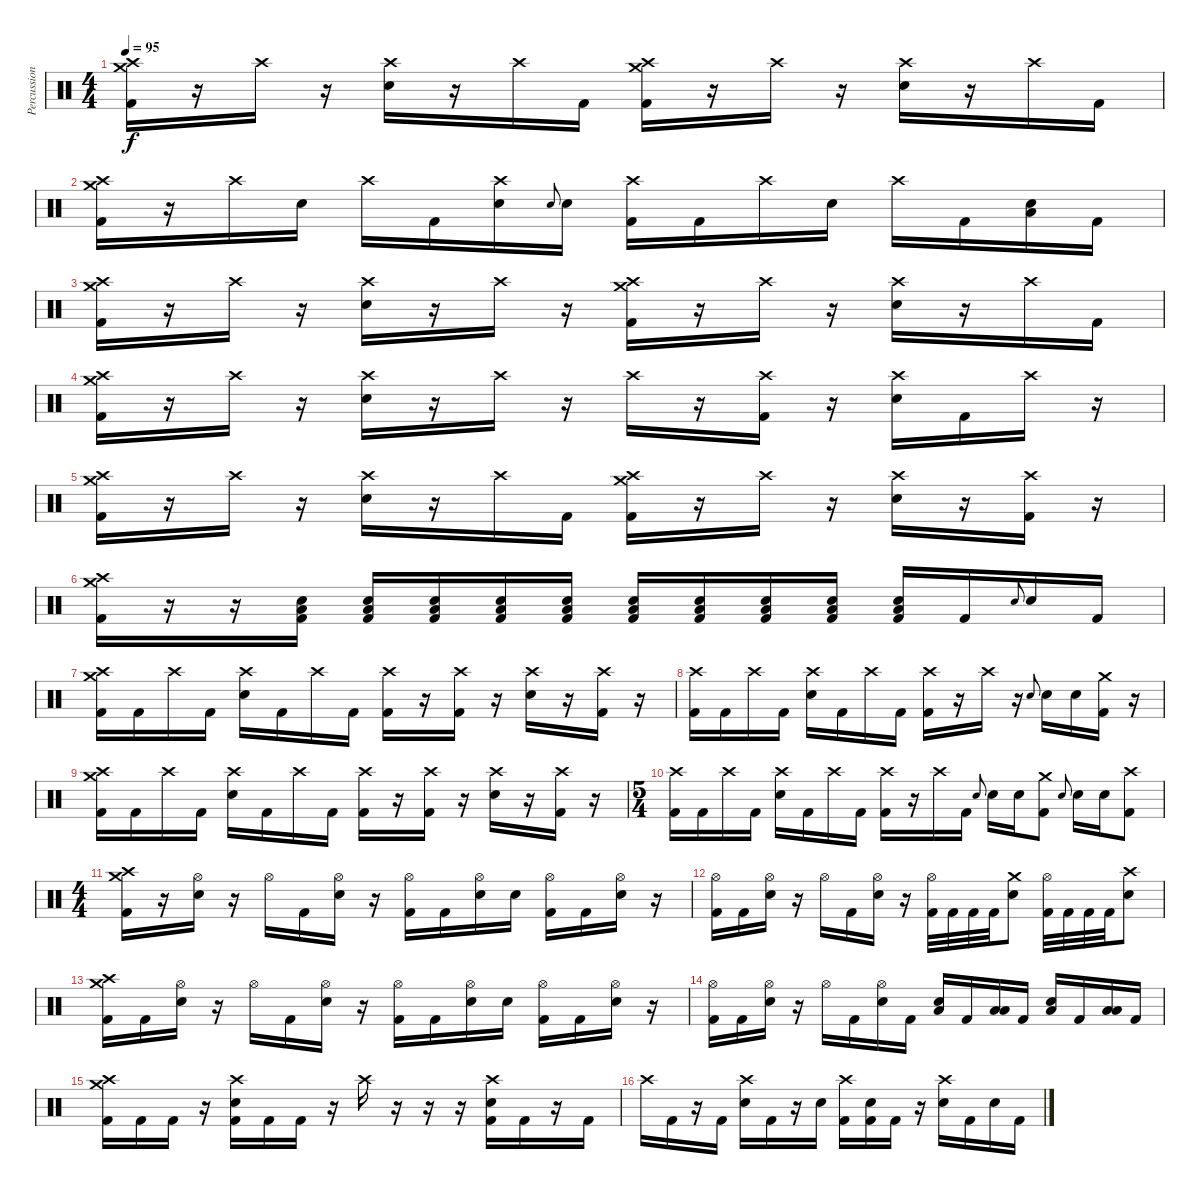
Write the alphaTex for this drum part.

\track ("Percussion" "Percussion") {instrument percussion}
\staff {score}
\articulation defaults
\ts (4 4)
\tempo 95
\clef neutral
\ks c
("Crash medium (hit)" "Crash high (hit)" "Kick (hit) 2").16{dy f} r.16 "Crash high (hit)".16 r.16 ("Crash high (hit)" "Electric Snare (hit)").16 r.16 "Crash high (hit)".16 "Kick (hit) 2".16 ("Crash medium (hit)" "Crash high (hit)" "Kick (hit) 2").16 r.16 "Crash high (hit)".16 r.16 ("Crash high (hit)" "Electric Snare (hit)").16 r.16 "Crash high (hit)".16 "Kick (hit) 2".16 |
("Crash medium (hit)" "Crash high (hit)" "Kick (hit) 2").16 r.16 "Crash high (hit)".16 "Electric Snare (hit)".16 "Crash high (hit)".16 "Kick (hit) 2".16 ("Crash high (hit)" "Electric Snare (hit)").16 "Electric Snare (hit)".8{gr onbeat} "Electric Snare (hit)".16 ("Crash high (hit)" "Kick (hit) 2").16 "Kick (hit) 2".16 "Crash high (hit)".16 "Electric Snare (hit)".16 "Crash high (hit)".16 "Kick (hit) 2".16 ("Low Floor Tom (hit)" "Electric Snare (hit)").16 "Kick (hit) 2".16 |
("Crash medium (hit)" "Crash high (hit)" "Kick (hit) 2").16 r.16 "Crash high (hit)".16 r.16 ("Crash high (hit)" "Electric Snare (hit)").16 r.16 "Crash high (hit)".16 r.16 ("Crash medium (hit)" "Crash high (hit)" "Kick (hit) 2").16 r.16 "Crash high (hit)".16 r.16 ("Crash high (hit)" "Electric Snare (hit)").16 r.16 "Crash high (hit)".16 "Kick (hit) 2".16 |
("Crash medium (hit)" "Crash high (hit)" "Kick (hit) 2").16 r.16 "Crash high (hit)".16 r.16 ("Crash high (hit)" "Electric Snare (hit)").16 r.16 "Crash high (hit)".16 r.16 "Crash high (hit)".16 r.16 ("Crash high (hit)" "Kick (hit) 2").16 r.16 ("Crash high (hit)" "Electric Snare (hit)").16 "Kick (hit) 2".16 "Crash high (hit)".16 r.16 |
("Crash medium (hit)" "Crash high (hit)" "Kick (hit) 2").16 r.16 "Crash high (hit)".16 r.16 ("Crash high (hit)" "Electric Snare (hit)").16 r.16 "Crash high (hit)".16 "Kick (hit) 2".16 ("Crash medium (hit)" "Crash high (hit)" "Kick (hit) 2").16 r.16 "Crash high (hit)".16 r.16 ("Crash high (hit)" "Electric Snare (hit)").16 r.16 ("Crash high (hit)" "Kick (hit) 2").16 r.16 |
("Crash medium (hit)" "Crash high (hit)" "Kick (hit) 2").16 r.16 r.16 ("Electric Snare (hit)" "Low Floor Tom (hit)" "Kick (hit) 2").16 ("Electric Snare (hit)" "Low Floor Tom (hit)" "Kick (hit) 2").16 ("Electric Snare (hit)" "Low Floor Tom (hit)" "Kick (hit) 2").16 ("Electric Snare (hit)" "Low Floor Tom (hit)" "Kick (hit) 2").16 ("Electric Snare (hit)" "Low Floor Tom (hit)" "Kick (hit) 2").16 ("Electric Snare (hit)" "Low Floor Tom (hit)" "Kick (hit) 2").16 ("Electric Snare (hit)" "Low Floor Tom (hit)" "Kick (hit) 2").16 ("Electric Snare (hit)" "Low Floor Tom (hit)" "Kick (hit) 2").16 ("Electric Snare (hit)" "Low Floor Tom (hit)" "Kick (hit) 2").16 ("Electric Snare (hit)" "Low Floor Tom (hit)" "Kick (hit) 2").16 "Kick (hit) 2".16 "Electric Snare (hit)".8{gr onbeat} "Electric Snare (hit)".16 "Kick (hit) 2".16 |
("Crash medium (hit)" "Crash high (hit)" "Kick (hit) 2").16 "Kick (hit) 2".16 "Crash high (hit)".16 "Kick (hit) 2".16 ("Crash high (hit)" "Electric Snare (hit)").16 "Kick (hit) 2".16 "Crash high (hit)".16 "Kick (hit) 2".16 ("Crash high (hit)" "Kick (hit) 2").16 r.16 ("Crash high (hit)" "Kick (hit) 2").16 r.16 ("Crash high (hit)" "Electric Snare (hit)").16 r.16 ("Crash high (hit)" "Kick (hit) 2").16 r.16 |
("Crash high (hit)" "Kick (hit) 2").16 "Kick (hit) 2".16 "Crash high (hit)".16 "Kick (hit) 2".16 ("Crash high (hit)" "Electric Snare (hit)").16 "Kick (hit) 2".16 "Crash high (hit)".16 "Kick (hit) 2".16 ("Crash high (hit)" "Kick (hit) 2").16 r.16 "Crash high (hit)".16 r.16 "Electric Snare (hit)".8{gr onbeat} "Electric Snare (hit)".16 "Electric Snare (hit)".16 ("Crash medium (hit)" "Kick (hit) 2").16 r.16 |
("Crash medium (hit)" "Crash high (hit)" "Kick (hit) 2").16 "Kick (hit) 2".16 "Crash high (hit)".16 "Kick (hit) 2".16 ("Crash high (hit)" "Electric Snare (hit)").16 "Kick (hit) 2".16 "Crash high (hit)".16 "Kick (hit) 2".16 ("Crash high (hit)" "Kick (hit) 2").16 r.16 ("Crash high (hit)" "Kick (hit) 2").16 r.16 ("Crash high (hit)" "Electric Snare (hit)").16 r.16 ("Crash high (hit)" "Kick (hit) 2").16 r.16 |
\ts (5 4)
("Crash high (hit)" "Kick (hit) 2").16 "Kick (hit) 2".16 "Crash high (hit)".16 "Kick (hit) 2".16 ("Crash high (hit)" "Electric Snare (hit)").16 "Kick (hit) 2".16 "Crash high (hit)".16 "Kick (hit) 2".16 ("Crash high (hit)" "Kick (hit) 2").16 r.16 "Crash high (hit)".16 "Kick (hit) 2".16 "Electric Snare (hit)".8{gr onbeat} "Electric Snare (hit)".16 "Electric Snare (hit)".16 ("Crash medium (hit)" "Kick (hit) 2").8 "Electric Snare (hit)".8{gr onbeat} "Electric Snare (hit)".16 "Electric Snare (hit)".16 ("Crash high (hit)" "Kick (hit) 2").8 |
\ts (4 4)
("Crash medium (hit)" "Crash high (hit)" "Kick (hit) 2").16 r.16 ("Hi-Hat (open)" "Electric Snare (hit)").16 r.16 "Hi-Hat (open)".16 "Kick (hit) 2".16 ("Hi-Hat (open)" "Electric Snare (hit)").16 r.16 ("Hi-Hat (open)" "Kick (hit) 2").16 "Kick (hit) 2".16 ("Hi-Hat (open)" "Electric Snare (hit)").16 "Electric Snare (hit)".16 ("Hi-Hat (open)" "Kick (hit) 2").16 "Kick (hit) 2".16 ("Hi-Hat (open)" "Electric Snare (hit)").16 r.16 |
("Hi-Hat (open)" "Kick (hit) 2").16 "Kick (hit) 2".16 ("Hi-Hat (open)" "Electric Snare (hit)").16 r.16 "Hi-Hat (open)".16 "Kick (hit) 2".16 ("Hi-Hat (open)" "Electric Snare (hit)").16 r.16 ("Hi-Hat (open)" "Kick (hit) 2").32 "Kick (hit) 2".32 "Kick (hit) 2".32 "Kick (hit) 2".32 ("Crash medium (hit)" "Electric Snare (hit)").8 ("Hi-Hat (open)" "Kick (hit) 2").32 "Kick (hit) 2".32 "Kick (hit) 2".32 "Kick (hit) 2".32 ("Crash high (hit)" "Electric Snare (hit)").8 |
("Crash medium (hit)" "Crash high (hit)" "Kick (hit) 2").16 "Kick (hit) 2".16 ("Hi-Hat (open)" "Electric Snare (hit)").16 r.16 "Hi-Hat (open)".16 "Kick (hit) 2".16 ("Hi-Hat (open)" "Electric Snare (hit)").16 r.16 ("Hi-Hat (open)" "Kick (hit) 2").16 "Kick (hit) 2".16 ("Hi-Hat (open)" "Electric Snare (hit)").16 "Electric Snare (hit)".16 ("Hi-Hat (open)" "Kick (hit) 2").16 "Kick (hit) 2".16 ("Hi-Hat (open)" "Electric Snare (hit)").16 r.16 |
("Hi-Hat (open)" "Kick (hit) 2").16 "Kick (hit) 2".16 ("Hi-Hat (open)" "Electric Snare (hit)").16 r.16 "Hi-Hat (open)".16 "Kick (hit) 2".16 ("Hi-Hat (open)" "Electric Snare (hit)").16 "Kick (hit) 2".16 ("Low Floor Tom (hit)" "Electric Snare (hit)").16 "Kick (hit) 2".16 ("Low Tom (hit)" "Low Floor Tom (hit)").16 "Kick (hit) 2".16 ("Low Floor Tom (hit)" "Electric Snare (hit)").16 "Kick (hit) 2".16 ("Low Tom (hit)" "Low Floor Tom (hit)").16 "Kick (hit) 2".16 |
("Crash medium (hit)" "Crash high (hit)" "Kick (hit) 2").16 "Kick (hit) 2".16 "Kick (hit) 2".16 r.16 ("Crash high (hit)" "Electric Snare (hit)" "Kick (hit) 2").16 "Kick (hit) 2".16 "Kick (hit) 2".16 r.16 "Crash high (hit)".16 r.16 r.16 r.16 ("Crash high (hit)" "Electric Snare (hit)" "Kick (hit) 2").16 "Kick (hit) 2".16 r.16 "Kick (hit) 2".16 |
"Crash high (hit)".16 "Kick (hit) 2".16 r.16 "Kick (hit) 2".16 ("Crash high (hit)" "Electric Snare (hit)").16 "Kick (hit) 2".16 r.16 "Electric Snare (hit)".16 ("Crash high (hit)" "Kick (hit) 2").16 ("Electric Snare (hit)" "Kick (hit) 2").16 "Kick (hit) 2".16 r.16 ("Crash high (hit)" "Electric Snare (hit)").16 "Kick (hit) 2".16 "Electric Snare (hit)".16 "Kick (hit) 2".16
